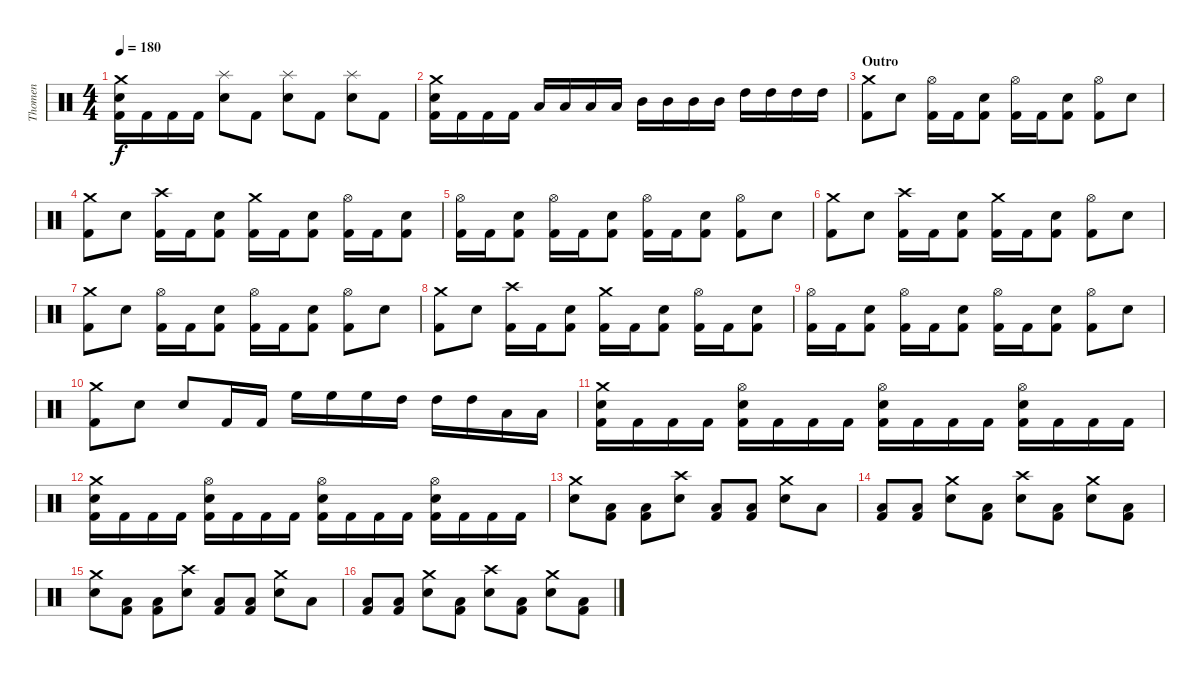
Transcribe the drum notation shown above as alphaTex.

\track ("Thomen" "Thomen") {instrument percussion}
\staff {score}
\articulation defaults
\ts (4 4)
\tempo 180
\clef neutral
\ks c
("Kick (hit) 2" "Electric Snare (hit)" "Crash medium (hit)").16{dy f} "Kick (hit) 2".16 "Kick (hit) 2".16 "Kick (hit) 2".16 ("Electric Snare (hit)" "Splash (hit)").8 "Kick (hit) 2".8 ("Electric Snare (hit)" "Splash (hit)").8 "Kick (hit) 2".8 ("Electric Snare (hit)" "Splash (hit)").8 "Kick (hit) 2".8 |
("Kick (hit) 2" "Electric Snare (hit)" "Crash medium (hit)").16 "Kick (hit) 2".16 "Kick (hit) 2".16 "Kick (hit) 2".16 "Low Tom (hit)".16 "Low Tom (hit)".16 "Low Tom (hit)".16 "Low Tom (hit)".16 "Mid Tom (hit)".16 "Mid Tom (hit)".16 "Mid Tom (hit)".16 "Mid Tom (hit)".16 "High Tom (hit)".16 "High Tom (hit)".16 "High Tom (hit)".16 "High Tom (hit)".16 |
\section ("" "Outro")
("Kick (hit) 2" "Crash medium (hit)").8 "Electric Snare (hit)".8 ("Kick (hit) 2" "Hi-Hat (open)").16 "Kick (hit) 2".16 ("Kick (hit) 2" "Electric Snare (hit)").8 ("Kick (hit) 2" "Hi-Hat (open)").16 "Kick (hit) 2".16 ("Kick (hit) 2" "Electric Snare (hit)").8 ("Kick (hit) 2" "Hi-Hat (open)").8 "Electric Snare (hit)".8 |
("Kick (hit) 2" "Crash medium (hit)").8 "Electric Snare (hit)".8 ("Kick (hit) 2" "Crash high (hit)").16 "Kick (hit) 2".16 ("Kick (hit) 2" "Electric Snare (hit)").8 ("Kick (hit) 2" "Crash medium (hit)").16 "Kick (hit) 2".16 ("Kick (hit) 2" "Electric Snare (hit)").8 ("Kick (hit) 2" "Hi-Hat (open)").16 "Kick (hit) 2".16 ("Kick (hit) 2" "Electric Snare (hit)").8 |
("Kick (hit) 2" "Hi-Hat (open)").16 "Kick (hit) 2".16 ("Kick (hit) 2" "Electric Snare (hit)").8 ("Kick (hit) 2" "Hi-Hat (open)").16 "Kick (hit) 2".16 ("Kick (hit) 2" "Electric Snare (hit)").8 ("Kick (hit) 2" "Hi-Hat (open)").16 "Kick (hit) 2".16 ("Kick (hit) 2" "Electric Snare (hit)").8 ("Kick (hit) 2" "Hi-Hat (open)").8 "Electric Snare (hit)".8 |
("Kick (hit) 2" "Crash medium (hit)").8 "Electric Snare (hit)".8 ("Kick (hit) 2" "Crash high (hit)").16 "Kick (hit) 2".16 ("Kick (hit) 2" "Electric Snare (hit)").8 ("Kick (hit) 2" "Crash medium (hit)").16 "Kick (hit) 2".16 ("Kick (hit) 2" "Electric Snare (hit)").8 ("Kick (hit) 2" "Hi-Hat (open)").8 "Electric Snare (hit)".8 |
("Kick (hit) 2" "Crash medium (hit)").8 "Electric Snare (hit)".8 ("Kick (hit) 2" "Hi-Hat (open)").16 "Kick (hit) 2".16 ("Kick (hit) 2" "Electric Snare (hit)").8 ("Kick (hit) 2" "Hi-Hat (open)").16 "Kick (hit) 2".16 ("Kick (hit) 2" "Electric Snare (hit)").8 ("Kick (hit) 2" "Hi-Hat (open)").8 "Electric Snare (hit)".8 |
("Kick (hit) 2" "Crash medium (hit)").8 "Electric Snare (hit)".8 ("Kick (hit) 2" "Crash high (hit)").16 "Kick (hit) 2".16 ("Kick (hit) 2" "Electric Snare (hit)").8 ("Kick (hit) 2" "Crash medium (hit)").16 "Kick (hit) 2".16 ("Kick (hit) 2" "Electric Snare (hit)").8 ("Kick (hit) 2" "Hi-Hat (open)").16 "Kick (hit) 2".16 ("Kick (hit) 2" "Electric Snare (hit)").8 |
("Kick (hit) 2" "Hi-Hat (open)").16 "Kick (hit) 2".16 ("Kick (hit) 2" "Electric Snare (hit)").8 ("Kick (hit) 2" "Hi-Hat (open)").16 "Kick (hit) 2".16 ("Kick (hit) 2" "Electric Snare (hit)").8 ("Kick (hit) 2" "Hi-Hat (open)").16 "Kick (hit) 2".16 ("Kick (hit) 2" "Electric Snare (hit)").8 ("Kick (hit) 2" "Hi-Hat (open)").8 "Electric Snare (hit)".8 |
("Kick (hit) 2" "Crash medium (hit)").8 "Electric Snare (hit)".8 "Electric Snare (hit)".8 "Kick (hit) 2".16 "Kick (hit) 2".16 "High Floor Tom (hit)".16 "High Floor Tom (hit)".16 "High Floor Tom (hit)".16 "High Tom (hit)".16 "High Tom (hit)".16 "High Tom (hit)".16 "Low Tom (hit)".16 "Low Tom (hit)".16 |
("Kick (hit) 2" "Electric Snare (hit)" "Crash medium (hit)").16 "Kick (hit) 2".16 "Kick (hit) 2".16 "Kick (hit) 2".16 ("Kick (hit) 2" "Electric Snare (hit)" "Hi-Hat (open)").16 "Kick (hit) 2".16 "Kick (hit) 2".16 "Kick (hit) 2".16 ("Kick (hit) 2" "Electric Snare (hit)" "Hi-Hat (open)").16 "Kick (hit) 2".16 "Kick (hit) 2".16 "Kick (hit) 2".16 ("Kick (hit) 2" "Electric Snare (hit)" "Hi-Hat (open)").16 "Kick (hit) 2".16 "Kick (hit) 2".16 "Kick (hit) 2".16 |
("Kick (hit) 2" "Electric Snare (hit)" "Crash medium (hit)").16 "Kick (hit) 2".16 "Kick (hit) 2".16 "Kick (hit) 2".16 ("Kick (hit) 2" "Electric Snare (hit)" "Hi-Hat (open)").16 "Kick (hit) 2".16 "Kick (hit) 2".16 "Kick (hit) 2".16 ("Kick (hit) 2" "Electric Snare (hit)" "Hi-Hat (open)").16 "Kick (hit) 2".16 "Kick (hit) 2".16 "Kick (hit) 2".16 ("Kick (hit) 2" "Electric Snare (hit)" "Hi-Hat (open)").16 "Kick (hit) 2".16 "Kick (hit) 2".16 "Kick (hit) 2".16 |
("Electric Snare (hit)" "Crash medium (hit)").8 ("Kick (hit) 2" "Low Tom (hit)").8 ("Kick (hit) 2" "Low Tom (hit)").8 ("Electric Snare (hit)" "Crash high (hit)").8 ("Kick (hit) 2" "Low Tom (hit)").8 ("Kick (hit) 2" "Low Tom (hit)").8 ("Electric Snare (hit)" "Crash medium (hit)").8 "Low Tom (hit)".8 |
("Kick (hit) 2" "Low Tom (hit)").8 ("Kick (hit) 2" "Low Tom (hit)").8 ("Electric Snare (hit)" "Crash medium (hit)").8 ("Kick (hit) 2" "Low Tom (hit)").8 ("Electric Snare (hit)" "Crash high (hit)").8 ("Kick (hit) 2" "Low Tom (hit)").8 ("Electric Snare (hit)" "Crash medium (hit)").8 ("Kick (hit) 2" "Low Tom (hit)").8 |
("Electric Snare (hit)" "Crash medium (hit)").8 ("Kick (hit) 2" "Low Tom (hit)").8 ("Kick (hit) 2" "Low Tom (hit)").8 ("Electric Snare (hit)" "Crash high (hit)").8 ("Kick (hit) 2" "Low Tom (hit)").8 ("Kick (hit) 2" "Low Tom (hit)").8 ("Electric Snare (hit)" "Crash medium (hit)").8 "Low Tom (hit)".8 |
("Kick (hit) 2" "Low Tom (hit)").8 ("Kick (hit) 2" "Low Tom (hit)").8 ("Electric Snare (hit)" "Crash medium (hit)").8 ("Kick (hit) 2" "Low Tom (hit)").8 ("Electric Snare (hit)" "Crash high (hit)").8 ("Kick (hit) 2" "Low Tom (hit)").8 ("Electric Snare (hit)" "Crash medium (hit)").8 ("Kick (hit) 2" "Low Tom (hit)").8
